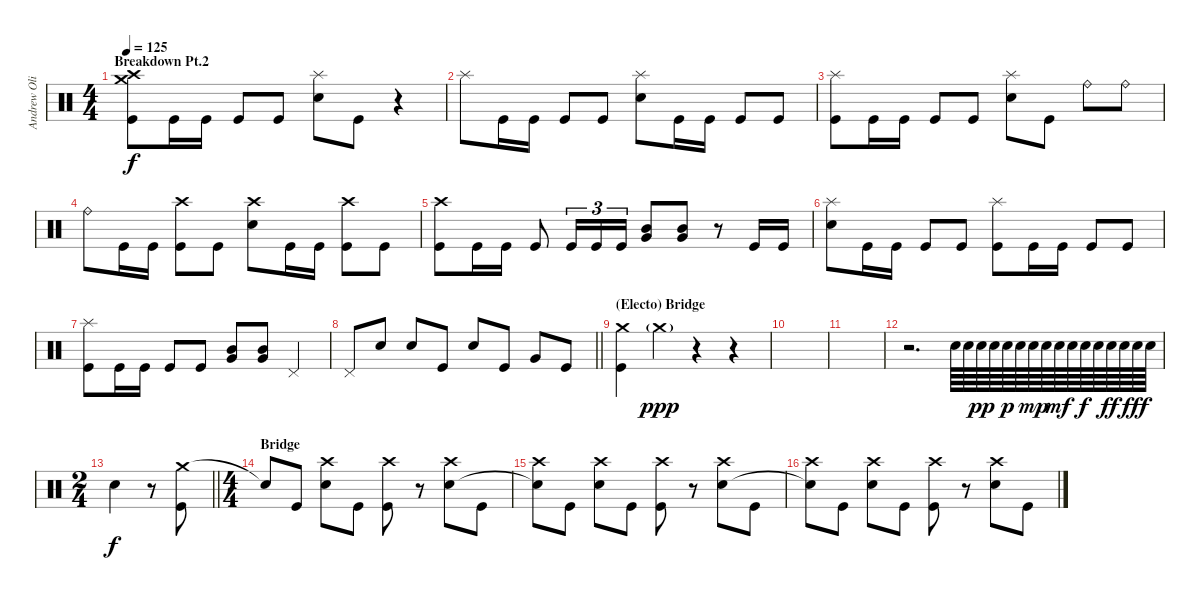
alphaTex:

\track ("Andrew Oliver" "Andrew Oli") {instrument percussion}
\staff {score}
\articulation defaults
\ts (4 4)
\section ("" "Breakdown Pt.2")
\tempo 125
\clef neutral
\ks c
("Crash medium (hit)" "Crash high (hit)" "Kick (hit)").8{dy f} "Kick (hit)".16 "Kick (hit)".16 "Kick (hit)".8 "Kick (hit)".8 ("Splash (hit)" "Electric Snare (hit)").8 "Kick (hit)".8 r.4 |
"Splash (hit)".8 "Kick (hit)".16 "Kick (hit)".16 "Kick (hit)".8 "Kick (hit)".8 ("Splash (hit)" "Electric Snare (hit)").8 "Kick (hit)".16 "Kick (hit)".16 "Kick (hit)".8 "Kick (hit)".8 |
("Splash (hit)" "Kick (hit)").8 "Kick (hit)".16 "Kick (hit)".16 "Kick (hit)".8 "Kick (hit)".8 ("Splash (hit)" "Electric Snare (hit)").8 "Kick (hit)".8 "Ride (bell)".8 "Ride (bell)".8 |
"Ride (bell)".8 "Kick (hit)".16 "Kick (hit)".16 ("Crash high (hit)" "Kick (hit)").8 "Kick (hit)".8 ("Crash high (hit)" "Electric Snare (hit)").8 "Kick (hit)".16 "Kick (hit)".16 ("Crash high (hit)" "Kick (hit)").8 "Kick (hit)".8 |
("Crash high (hit)" "Kick (hit)").8 "Kick (hit)".16 "Kick (hit)".16 "Kick (hit)".8 "Kick (hit)".16{tu (3 2)} "Kick (hit)".16{tu (3 2)} "Kick (hit)".16{tu (3 2)} ("Mid Tom (hit)" "Very Low Tom (hit)").8 ("Mid Tom (hit)" "Very Low Tom (hit)").8 r.8 "Kick (hit)".16 "Kick (hit)".16 |
("Splash (hit)" "Electric Snare (hit)").8 "Kick (hit)".16 "Kick (hit)".16 "Kick (hit)".8 "Kick (hit)".8 ("Splash (hit)" "Kick (hit)").8 "Kick (hit)".16 "Kick (hit)".16 "Kick (hit)".8 "Kick (hit)".8 |
("Splash (hit)" "Kick (hit)").8 "Kick (hit)".16 "Kick (hit)".16 "Kick (hit)".8 "Kick (hit)".8 ("Mid Tom (hit)" "Very Low Tom (hit)").8 ("Mid Tom (hit)" "Very Low Tom (hit)").8 "Pedal Hi-Hat (hit)".4 |
\barLineRight lightlight "Pedal Hi-Hat (hit)".8 "Electric Snare (hit)".8 "Electric Snare (hit)".8 "Kick (hit)".8 "Electric Snare (hit)".8 "Kick (hit)".8 "Very Low Tom (hit)".8 "Kick (hit)".8
|
\section ("" "(Electo) Bridge")
("Crash medium (hit)" "Kick (hit)").4 "Crash medium (hit)"{g}.4{dy ppp} r.4 r.4 |
|
|
r.2{d} "Electric Snare (hit)".64 "Electric Snare (hit)".64 "Electric Snare (hit)".64{dy pp} "Electric Snare (hit)".64 "Electric Snare (hit)".64{dy p} "Electric Snare (hit)".64 "Electric Snare (hit)".64{dy mp} "Electric Snare (hit)".64 "Electric Snare (hit)".64{dy mf} "Electric Snare (hit)".64 "Electric Snare (hit)".64{dy f} "Electric Snare (hit)".64 "Electric Snare (hit)".64{dy ff} "Electric Snare (hit)".64 "Electric Snare (hit)".64{dy fff} "Electric Snare (hit)".64 |
\ts (2 4)
\barLineRight lightlight "Electric Snare (hit)".4{dy f}
r.8 ("Crash medium (hit)" "Kick (hit)").8 |
\ts (4 4)
\section ("" "Bridge")
"Snare (hit)"{t}.8 "Kick (hit)".8 ("Crash high (hit)" "Electric Snare (hit)").8 "Kick (hit)".8 ("Crash high (hit)" "Kick (hit)").8 r.8 ("Crash high (hit)" "Electric Snare (hit)").8 "Kick (hit)".8 |
("Crash high (hit)" "Snare (hit)"{t}).8 "Kick (hit)".8 ("Crash high (hit)" "Electric Snare (hit)").8 "Kick (hit)".8 ("Crash high (hit)" "Kick (hit)").8 r.8 ("Crash high (hit)" "Electric Snare (hit)").8 "Kick (hit)".8 |
("Crash high (hit)" "Snare (hit)"{t}).8 "Kick (hit)".8 ("Crash high (hit)" "Electric Snare (hit)").8 "Kick (hit)".8 ("Crash high (hit)" "Kick (hit)").8 r.8 ("Crash high (hit)" "Electric Snare (hit)").8 "Kick (hit)".8
